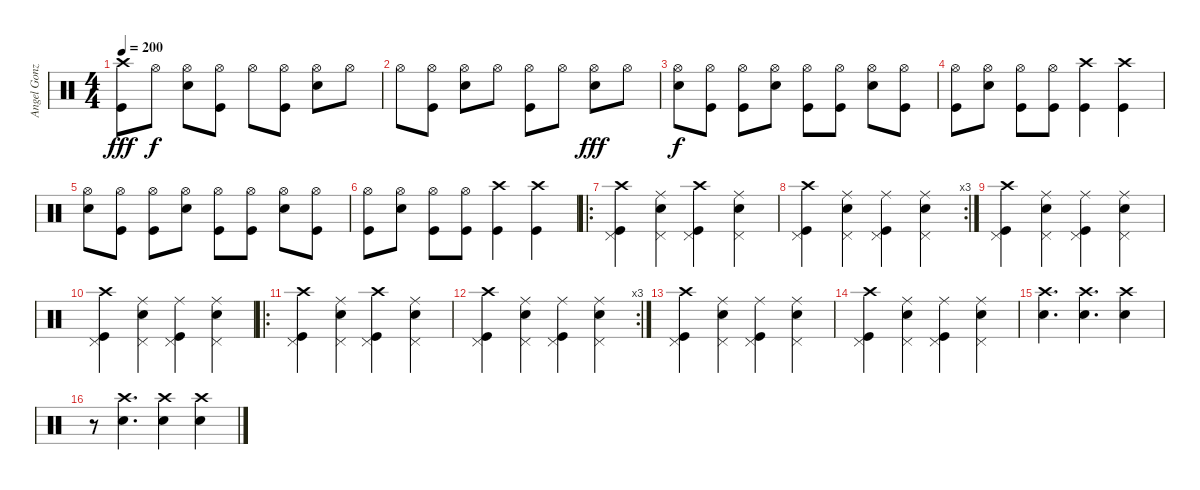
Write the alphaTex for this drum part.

\track ("Angel Gonzalez - Batería" "Angel Gonz") {instrument percussion}
\staff {score}
\articulation defaults
\ts (4 4)
\tempo 200
\clef neutral
\ks c
("Crash high (hit)" "Kick (hit)").8{dy fff} "Hi-Hat (open)".8{dy f} ("Snare (hit) 2" "Hi-Hat (open)").8 ("Hi-Hat (open)" "Kick (hit)").8 "Hi-Hat (open)".8 ("Hi-Hat (open)" "Kick (hit)").8 ("Snare (hit) 2" "Hi-Hat (open)").8 "Hi-Hat (open)".8 |
"Hi-Hat (open)".8 ("Hi-Hat (open)" "Kick (hit)").8 ("Snare (hit) 2" "Hi-Hat (open)").8 "Hi-Hat (open)".8 ("Hi-Hat (open)" "Kick (hit)").8 "Hi-Hat (open)".8 ("Snare (hit) 2" "Hi-Hat (open)").8{dy fff} "Hi-Hat (open)".8 |
("Snare (hit) 2" "Hi-Hat (open)").8{dy f} ("Hi-Hat (open)" "Kick (hit)").8 ("Hi-Hat (open)" "Kick (hit)").8 ("Snare (hit) 2" "Hi-Hat (open)").8 ("Hi-Hat (open)" "Kick (hit)").8 ("Hi-Hat (open)" "Kick (hit)").8 ("Snare (hit) 2" "Hi-Hat (open)").8 ("Hi-Hat (open)" "Kick (hit)").8 |
("Hi-Hat (open)" "Kick (hit)").8 ("Snare (hit) 2" "Hi-Hat (open)").8 ("Hi-Hat (open)" "Kick (hit)").8 ("Hi-Hat (open)" "Kick (hit)").8 ("Crash high (hit)" "Kick (hit)").4 ("Crash high (hit)" "Kick (hit)").4 |
("Snare (hit) 2" "Hi-Hat (open)").8 ("Hi-Hat (open)" "Kick (hit)").8 ("Hi-Hat (open)" "Kick (hit)").8 ("Snare (hit) 2" "Hi-Hat (open)").8 ("Hi-Hat (open)" "Kick (hit)").8 ("Hi-Hat (open)" "Kick (hit)").8 ("Snare (hit) 2" "Hi-Hat (open)").8 ("Hi-Hat (open)" "Kick (hit)").8 |
("Hi-Hat (open)" "Kick (hit)").8 ("Snare (hit) 2" "Hi-Hat (open)").8 ("Hi-Hat (open)" "Kick (hit)").8 ("Hi-Hat (open)" "Kick (hit)").8 ("Crash high (hit)" "Kick (hit)").4 ("Crash high (hit)" "Kick (hit)").4 |
\ro
("Crash high (hit)" "Pedal Hi-Hat (hit)" "Kick (hit)").4 ("Ride (middle)" "Snare (hit) 2" "Pedal Hi-Hat (hit)").4 ("Crash high (hit)" "Pedal Hi-Hat (hit)" "Kick (hit)").4 ("Ride (middle)" "Snare (hit) 2" "Pedal Hi-Hat (hit)").4 |
\rc 3
("Crash high (hit)" "Pedal Hi-Hat (hit)" "Kick (hit)").4 ("Ride (middle)" "Snare (hit) 2" "Pedal Hi-Hat (hit)").4 ("Ride (middle)" "Pedal Hi-Hat (hit)" "Kick (hit)").4 ("Ride (middle)" "Snare (hit) 2" "Pedal Hi-Hat (hit)").4 |
("Crash high (hit)" "Pedal Hi-Hat (hit)" "Kick (hit)").4 ("Ride (middle)" "Snare (hit) 2" "Pedal Hi-Hat (hit)").4 ("Ride (middle)" "Pedal Hi-Hat (hit)" "Kick (hit)").4 ("Ride (middle)" "Snare (hit) 2" "Pedal Hi-Hat (hit)").4 |
("Crash high (hit)" "Pedal Hi-Hat (hit)" "Kick (hit)").4 ("Ride (middle)" "Snare (hit) 2" "Pedal Hi-Hat (hit)").4 ("Ride (middle)" "Pedal Hi-Hat (hit)" "Kick (hit)").4 ("Ride (middle)" "Snare (hit) 2" "Pedal Hi-Hat (hit)").4 |
\ro
("Crash high (hit)" "Pedal Hi-Hat (hit)" "Kick (hit)").4 ("Ride (middle)" "Snare (hit) 2" "Pedal Hi-Hat (hit)").4 ("Crash high (hit)" "Pedal Hi-Hat (hit)" "Kick (hit)").4 ("Ride (middle)" "Snare (hit) 2" "Pedal Hi-Hat (hit)").4 |
\rc 3
("Crash high (hit)" "Pedal Hi-Hat (hit)" "Kick (hit)").4 ("Ride (middle)" "Snare (hit) 2" "Pedal Hi-Hat (hit)").4 ("Ride (middle)" "Pedal Hi-Hat (hit)" "Kick (hit)").4 ("Ride (middle)" "Snare (hit) 2" "Pedal Hi-Hat (hit)").4 |
("Crash high (hit)" "Pedal Hi-Hat (hit)" "Kick (hit)").4 ("Ride (middle)" "Snare (hit) 2" "Pedal Hi-Hat (hit)").4 ("Ride (middle)" "Pedal Hi-Hat (hit)" "Kick (hit)").4 ("Ride (middle)" "Snare (hit) 2" "Pedal Hi-Hat (hit)").4 |
("Crash high (hit)" "Pedal Hi-Hat (hit)" "Kick (hit)").4 ("Ride (middle)" "Snare (hit) 2" "Pedal Hi-Hat (hit)").4 ("Ride (middle)" "Pedal Hi-Hat (hit)" "Kick (hit)").4 ("Ride (middle)" "Snare (hit) 2" "Pedal Hi-Hat (hit)").4 |
("Crash high (hit)" "Snare (hit) 2").4{d} ("Crash high (hit)" "Snare (hit) 2").4{d} ("Crash high (hit)" "Snare (hit) 2").4 |
r.8 ("Crash high (hit)" "Snare (hit) 2").4{d} ("Crash high (hit)" "Snare (hit) 2").4 ("Crash high (hit)" "Snare (hit) 2").4
